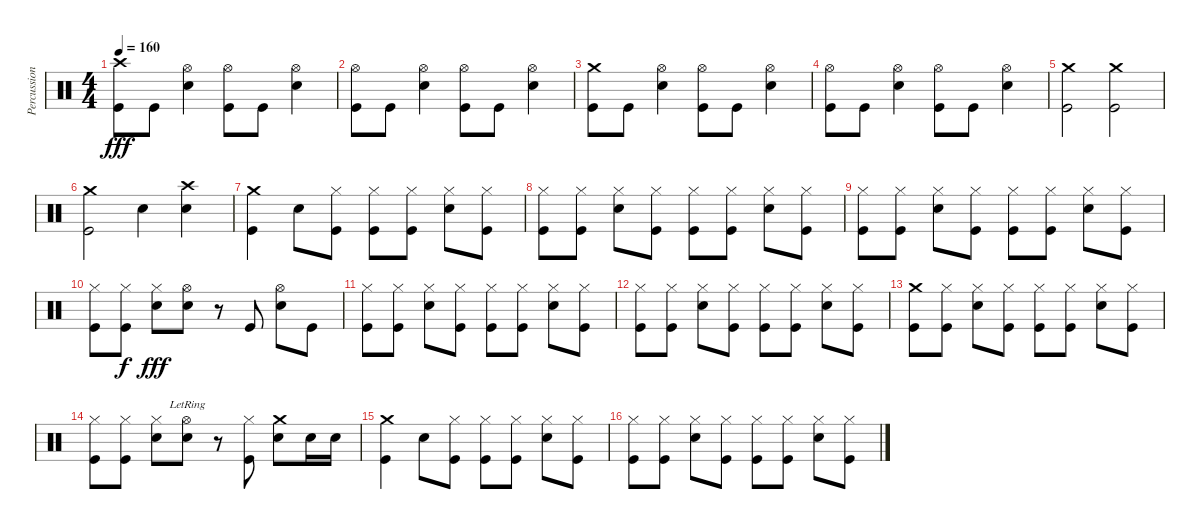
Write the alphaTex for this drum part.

\track ("Percussions" "Percussion") {instrument percussion}
\staff {score}
\articulation defaults
\ts (4 4)
\tempo 160
\clef neutral
\ks c
("Crash high (hit)" "Kick (hit)").8{dy fff} "Kick (hit)".8 ("Hi-Hat (open)" "Electric Snare (hit)").4 ("Hi-Hat (open)" "Kick (hit)").8 "Kick (hit)".8 ("Hi-Hat (open)" "Electric Snare (hit)").4 |
("Hi-Hat (open)" "Kick (hit)").8 "Kick (hit)".8 ("Hi-Hat (open)" "Electric Snare (hit)").4 ("Hi-Hat (open)" "Kick (hit)").8 "Kick (hit)".8 ("Hi-Hat (open)" "Electric Snare (hit)").4 |
("Crash medium (hit)" "Kick (hit)").8 "Kick (hit)".8 ("Hi-Hat (open)" "Electric Snare (hit)").4 ("Hi-Hat (open)" "Kick (hit)").8 "Kick (hit)".8 ("Hi-Hat (open)" "Electric Snare (hit)").4 |
("Hi-Hat (open)" "Kick (hit)").8 "Kick (hit)".8 ("Hi-Hat (open)" "Electric Snare (hit)").4 ("Hi-Hat (open)" "Kick (hit)").8 "Kick (hit)".8 ("Hi-Hat (open)" "Electric Snare (hit)").4 |
("Crash medium (hit)" "Kick (hit)").2 ("Crash medium (hit)" "Kick (hit)").2 |
("Crash medium (hit)" "Kick (hit)").2 "Electric Snare (hit)".4 ("Crash high (hit)" "Electric Snare (hit)").4 |
("Crash medium (hit)" "Kick (hit)").4 "Electric Snare (hit)".8 ("Hi-Hat (closed)" "Kick (hit)").8 ("Hi-Hat (closed)" "Kick (hit)").8 ("Hi-Hat (closed)" "Kick (hit)").8 ("Hi-Hat (closed)" "Electric Snare (hit)").8 ("Hi-Hat (closed)" "Kick (hit)").8 |
("Hi-Hat (closed)" "Kick (hit)").8 ("Hi-Hat (closed)" "Kick (hit)").8 ("Hi-Hat (closed)" "Electric Snare (hit)").8 ("Hi-Hat (closed)" "Kick (hit)").8 ("Hi-Hat (closed)" "Kick (hit)").8 ("Hi-Hat (closed)" "Kick (hit)").8 ("Hi-Hat (closed)" "Electric Snare (hit)").8 ("Hi-Hat (closed)" "Kick (hit)").8 |
("Hi-Hat (closed)" "Kick (hit)").8 ("Hi-Hat (closed)" "Kick (hit)").8 ("Hi-Hat (closed)" "Electric Snare (hit)").8 ("Hi-Hat (closed)" "Kick (hit)").8 ("Hi-Hat (closed)" "Kick (hit)").8 ("Hi-Hat (closed)" "Kick (hit)").8 ("Hi-Hat (closed)" "Electric Snare (hit)").8 ("Hi-Hat (closed)" "Kick (hit)").8 |
("Hi-Hat (closed)" "Kick (hit)").8 ("Hi-Hat (closed)" "Kick (hit)").8{dy f} ("Hi-Hat (closed)" "Electric Snare (hit)").8{dy fff} ("Hi-Hat (open)" "Electric Snare (hit)").8 r.8 "Kick (hit)".8 ("Hi-Hat (open)" "Electric Snare (hit)").8 "Kick (hit)".8 |
("Hi-Hat (closed)" "Kick (hit)").8 ("Hi-Hat (closed)" "Kick (hit)").8 ("Hi-Hat (closed)" "Electric Snare (hit)").8 ("Hi-Hat (closed)" "Kick (hit)").8 ("Hi-Hat (closed)" "Kick (hit)").8 ("Hi-Hat (closed)" "Kick (hit)").8 ("Hi-Hat (closed)" "Electric Snare (hit)").8 ("Hi-Hat (closed)" "Kick (hit)").8 |
("Hi-Hat (closed)" "Kick (hit)").8 ("Hi-Hat (closed)" "Kick (hit)").8 ("Hi-Hat (closed)" "Electric Snare (hit)").8 ("Hi-Hat (closed)" "Kick (hit)").8 ("Hi-Hat (closed)" "Kick (hit)").8 ("Hi-Hat (closed)" "Kick (hit)").8 ("Hi-Hat (closed)" "Electric Snare (hit)").8 ("Hi-Hat (closed)" "Kick (hit)").8 |
("Crash medium (hit)" "Kick (hit)").8 ("Hi-Hat (closed)" "Kick (hit)").8 ("Hi-Hat (closed)" "Electric Snare (hit)").8 ("Hi-Hat (closed)" "Kick (hit)").8 ("Hi-Hat (closed)" "Kick (hit)").8 ("Hi-Hat (closed)" "Kick (hit)").8 ("Hi-Hat (closed)" "Electric Snare (hit)").8 ("Hi-Hat (closed)" "Kick (hit)").8 |
("Hi-Hat (closed)" "Kick (hit)").8 ("Hi-Hat (closed)" "Kick (hit)").8 ("Hi-Hat (closed)" "Electric Snare (hit)").8 ("Hi-Hat (open)"{lr} "Electric Snare (hit)").8 r.8 ("Hi-Hat (closed)" "Kick (hit)").8 ("Crash medium (hit)" "Electric Snare (hit)").8 "Electric Snare (hit)".16 "Electric Snare (hit)".16 |
("Crash medium (hit)" "Kick (hit)").4 "Electric Snare (hit)".8 ("Hi-Hat (closed)" "Kick (hit)").8 ("Hi-Hat (closed)" "Kick (hit)").8 ("Hi-Hat (closed)" "Kick (hit)").8 ("Hi-Hat (closed)" "Electric Snare (hit)").8 ("Hi-Hat (closed)" "Kick (hit)").8 |
("Hi-Hat (closed)" "Kick (hit)").8 ("Hi-Hat (closed)" "Kick (hit)").8 ("Hi-Hat (closed)" "Electric Snare (hit)").8 ("Hi-Hat (closed)" "Kick (hit)").8 ("Hi-Hat (closed)" "Kick (hit)").8 ("Hi-Hat (closed)" "Kick (hit)").8 ("Hi-Hat (closed)" "Electric Snare (hit)").8 ("Hi-Hat (closed)" "Kick (hit)").8
